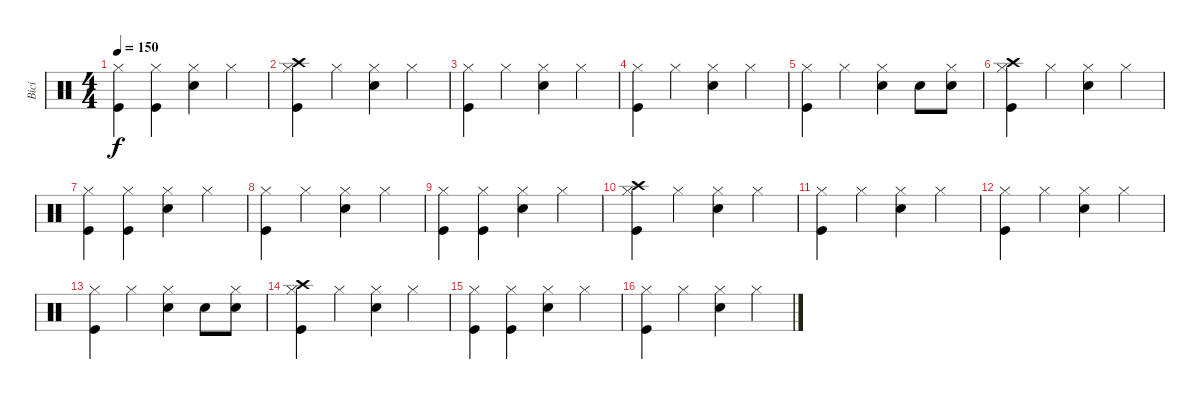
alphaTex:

\track ("Bicí" "Bicí") {instrument percussion}
\staff {score}
\articulation defaults
\ts (4 4)
\tempo 150
\clef neutral
\ks c
("Kick (hit)" "Hi-Hat (closed)").4{dy f} ("Kick (hit)" "Hi-Hat (closed)").4 ("Snare (hit) 2" "Hi-Hat (closed)").4 "Hi-Hat (closed)".4 |
("Kick (hit)" "Crash high (hit)" "Hi-Hat (closed)").4 "Hi-Hat (closed)".4 ("Snare (hit) 2" "Hi-Hat (closed)").4 "Hi-Hat (closed)".4 |
("Kick (hit)" "Hi-Hat (closed)").4 "Hi-Hat (closed)".4 ("Snare (hit) 2" "Hi-Hat (closed)").4 "Hi-Hat (closed)".4 |
("Kick (hit)" "Hi-Hat (closed)").4 "Hi-Hat (closed)".4 ("Snare (hit) 2" "Hi-Hat (closed)").4 "Hi-Hat (closed)".4 |
("Kick (hit)" "Hi-Hat (closed)").4 "Hi-Hat (closed)".4 ("Snare (hit) 2" "Hi-Hat (closed)").4 "Snare (hit) 2".8 ("Snare (hit) 2" "Hi-Hat (closed)").8 |
("Kick (hit)" "Crash high (hit)" "Hi-Hat (closed)").4 "Hi-Hat (closed)".4 ("Snare (hit) 2" "Hi-Hat (closed)").4 "Hi-Hat (closed)".4 |
("Kick (hit)" "Hi-Hat (closed)").4 ("Kick (hit)" "Hi-Hat (closed)").4 ("Snare (hit) 2" "Hi-Hat (closed)").4 "Hi-Hat (closed)".4 |
("Kick (hit)" "Hi-Hat (closed)").4 "Hi-Hat (closed)".4 ("Snare (hit) 2" "Hi-Hat (closed)").4 "Hi-Hat (closed)".4 |
("Kick (hit)" "Hi-Hat (closed)").4 ("Kick (hit)" "Hi-Hat (closed)").4 ("Snare (hit) 2" "Hi-Hat (closed)").4 "Hi-Hat (closed)".4 |
("Kick (hit)" "Crash high (hit)" "Hi-Hat (closed)").4 "Hi-Hat (closed)".4 ("Snare (hit) 2" "Hi-Hat (closed)").4 "Hi-Hat (closed)".4 |
("Kick (hit)" "Hi-Hat (closed)").4 "Hi-Hat (closed)".4 ("Snare (hit) 2" "Hi-Hat (closed)").4 "Hi-Hat (closed)".4 |
("Kick (hit)" "Hi-Hat (closed)").4 "Hi-Hat (closed)".4 ("Snare (hit) 2" "Hi-Hat (closed)").4 "Hi-Hat (closed)".4 |
("Kick (hit)" "Hi-Hat (closed)").4 "Hi-Hat (closed)".4 ("Snare (hit) 2" "Hi-Hat (closed)").4 "Snare (hit) 2".8 ("Snare (hit) 2" "Hi-Hat (closed)").8 |
("Kick (hit)" "Crash high (hit)" "Hi-Hat (closed)").4 "Hi-Hat (closed)".4 ("Snare (hit) 2" "Hi-Hat (closed)").4 "Hi-Hat (closed)".4 |
("Kick (hit)" "Hi-Hat (closed)").4 ("Kick (hit)" "Hi-Hat (closed)").4 ("Snare (hit) 2" "Hi-Hat (closed)").4 "Hi-Hat (closed)".4 |
("Kick (hit)" "Hi-Hat (closed)").4 "Hi-Hat (closed)".4 ("Snare (hit) 2" "Hi-Hat (closed)").4 "Hi-Hat (closed)".4
